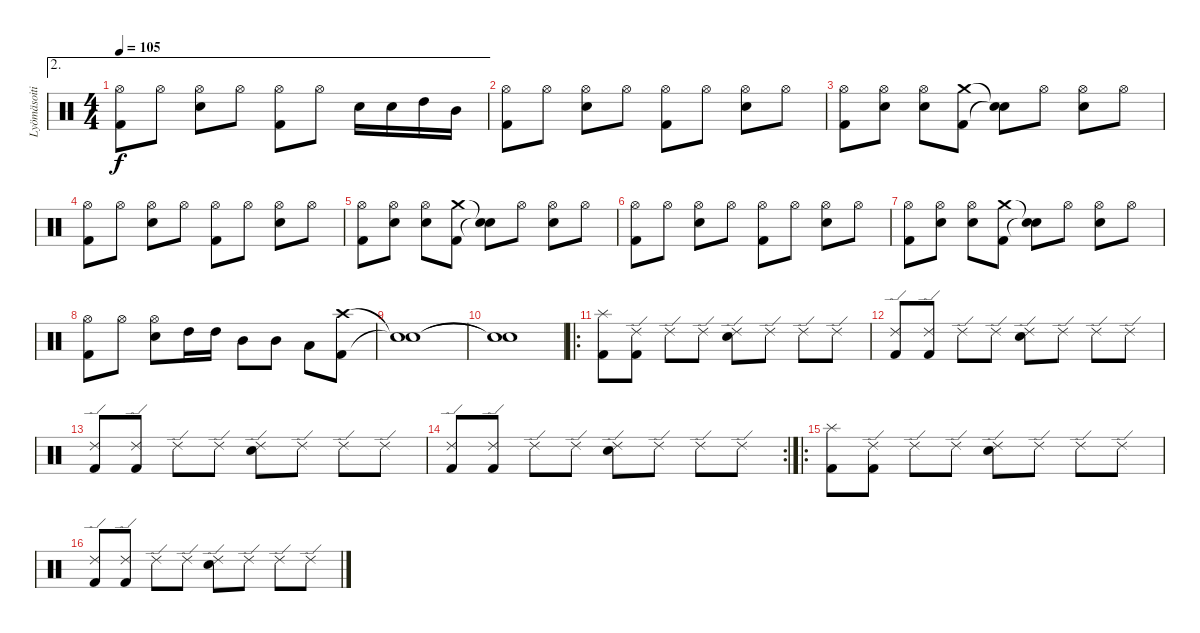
\track ("Lyömäsoitin" "Lyömäsoiti") {instrument percussion}
\staff {score}
\articulation defaults
\ae 2
\ts (4 4)
\tempo 105
\clef neutral
\ks c
("Kick (hit) 2" "Hi-Hat (open)").8{dy f} "Hi-Hat (open)".8 ("Electric Snare (hit)" "Hi-Hat (open)").8 "Hi-Hat (open)".8 ("Kick (hit) 2" "Hi-Hat (open)").8 "Hi-Hat (open)".8 "Electric Snare (hit)".16 "Electric Snare (hit)".16 "High Tom (hit)".16 "Mid Tom (hit)".16 |
("Kick (hit) 2" "Hi-Hat (open)").8 "Hi-Hat (open)".8 ("Electric Snare (hit)" "Hi-Hat (open)").8 "Hi-Hat (open)".8 ("Kick (hit) 2" "Hi-Hat (open)").8 "Hi-Hat (open)".8 ("Electric Snare (hit)" "Hi-Hat (open)").8 "Hi-Hat (open)".8 |
("Kick (hit) 2" "Hi-Hat (open)").8 ("Electric Snare (hit)" "Hi-Hat (open)").8 ("Electric Snare (hit)" "Hi-Hat (open)").8 ("Kick (hit) 2" "Crash medium (hit)").8 ("Snare (hit)"{t} "Snare (hit)"{t}).8 "Hi-Hat (open)".8 ("Electric Snare (hit)" "Hi-Hat (open)").8 "Hi-Hat (open)".8 |
("Kick (hit) 2" "Hi-Hat (open)").8 "Hi-Hat (open)".8 ("Electric Snare (hit)" "Hi-Hat (open)").8 "Hi-Hat (open)".8 ("Kick (hit) 2" "Hi-Hat (open)").8 "Hi-Hat (open)".8 ("Electric Snare (hit)" "Hi-Hat (open)").8 "Hi-Hat (open)".8 |
("Kick (hit) 2" "Hi-Hat (open)").8 ("Electric Snare (hit)" "Hi-Hat (open)").8 ("Electric Snare (hit)" "Hi-Hat (open)").8 ("Kick (hit) 2" "Crash medium (hit)").8 ("Snare (hit)"{t} "Snare (hit)"{t}).8 "Hi-Hat (open)".8 ("Electric Snare (hit)" "Hi-Hat (open)").8 "Hi-Hat (open)".8 |
("Kick (hit) 2" "Hi-Hat (open)").8 "Hi-Hat (open)".8 ("Electric Snare (hit)" "Hi-Hat (open)").8 "Hi-Hat (open)".8 ("Kick (hit) 2" "Hi-Hat (open)").8 "Hi-Hat (open)".8 ("Electric Snare (hit)" "Hi-Hat (open)").8 "Hi-Hat (open)".8 |
("Kick (hit) 2" "Hi-Hat (open)").8 ("Electric Snare (hit)" "Hi-Hat (open)").8 ("Electric Snare (hit)" "Hi-Hat (open)").8 ("Kick (hit) 2" "Crash medium (hit)").8 ("Snare (hit)"{t} "Snare (hit)"{t}).8 "Hi-Hat (open)".8 ("Electric Snare (hit)" "Hi-Hat (open)").8 "Hi-Hat (open)".8 |
("Kick (hit) 2" "Hi-Hat (open)").8 "Hi-Hat (open)".8 ("Electric Snare (hit)" "Hi-Hat (open)").8 "High Tom (hit)".16 "High Tom (hit)".16 "Mid Tom (hit)".8 "Mid Tom (hit)".8 "Low Tom (hit)".8 ("Kick (hit) 2" "Crash high (hit)").8 |
("Snare (hit)"{t} "Snare (hit)"{t}).1 |
("Snare (hit)"{t} "Snare (hit)"{t}).1 |
\ro
("Kick (hit) 2" "Splash (hit)").8 ("Kick (hit) 2" "Ride (edge) 2").8 "Ride (edge) 2".8 "Ride (edge) 2".8 ("Electric Snare (hit)" "Ride (edge) 2").8 "Ride (edge) 2".8 "Ride (edge) 2".8 "Ride (edge) 2".8 |
("Kick (hit) 2" "Ride (edge) 2").8 ("Kick (hit) 2" "Ride (edge) 2").8 "Ride (edge) 2".8 "Ride (edge) 2".8 ("Electric Snare (hit)" "Ride (edge) 2").8 "Ride (edge) 2".8 "Ride (edge) 2".8 "Ride (edge) 2".8 |
("Kick (hit) 2" "Ride (edge) 2").8 ("Kick (hit) 2" "Ride (edge) 2").8 "Ride (edge) 2".8 "Ride (edge) 2".8 ("Electric Snare (hit)" "Ride (edge) 2").8 "Ride (edge) 2".8 "Ride (edge) 2".8 "Ride (edge) 2".8 |
\rc 2
("Kick (hit) 2" "Ride (edge) 2").8 ("Kick (hit) 2" "Ride (edge) 2").8 "Ride (edge) 2".8 "Ride (edge) 2".8 ("Electric Snare (hit)" "Ride (edge) 2").8 "Ride (edge) 2".8 "Ride (edge) 2".8 "Ride (edge) 2".8 |
\ro
("Kick (hit) 2" "Splash (hit)").8 ("Kick (hit) 2" "Ride (edge) 2").8 "Ride (edge) 2".8 "Ride (edge) 2".8 ("Electric Snare (hit)" "Ride (edge) 2").8 "Ride (edge) 2".8 "Ride (edge) 2".8 "Ride (edge) 2".8 |
("Kick (hit) 2" "Ride (edge) 2").8 ("Kick (hit) 2" "Ride (edge) 2").8 "Ride (edge) 2".8 "Ride (edge) 2".8 ("Electric Snare (hit)" "Ride (edge) 2").8 "Ride (edge) 2".8 "Ride (edge) 2".8 "Ride (edge) 2".8
